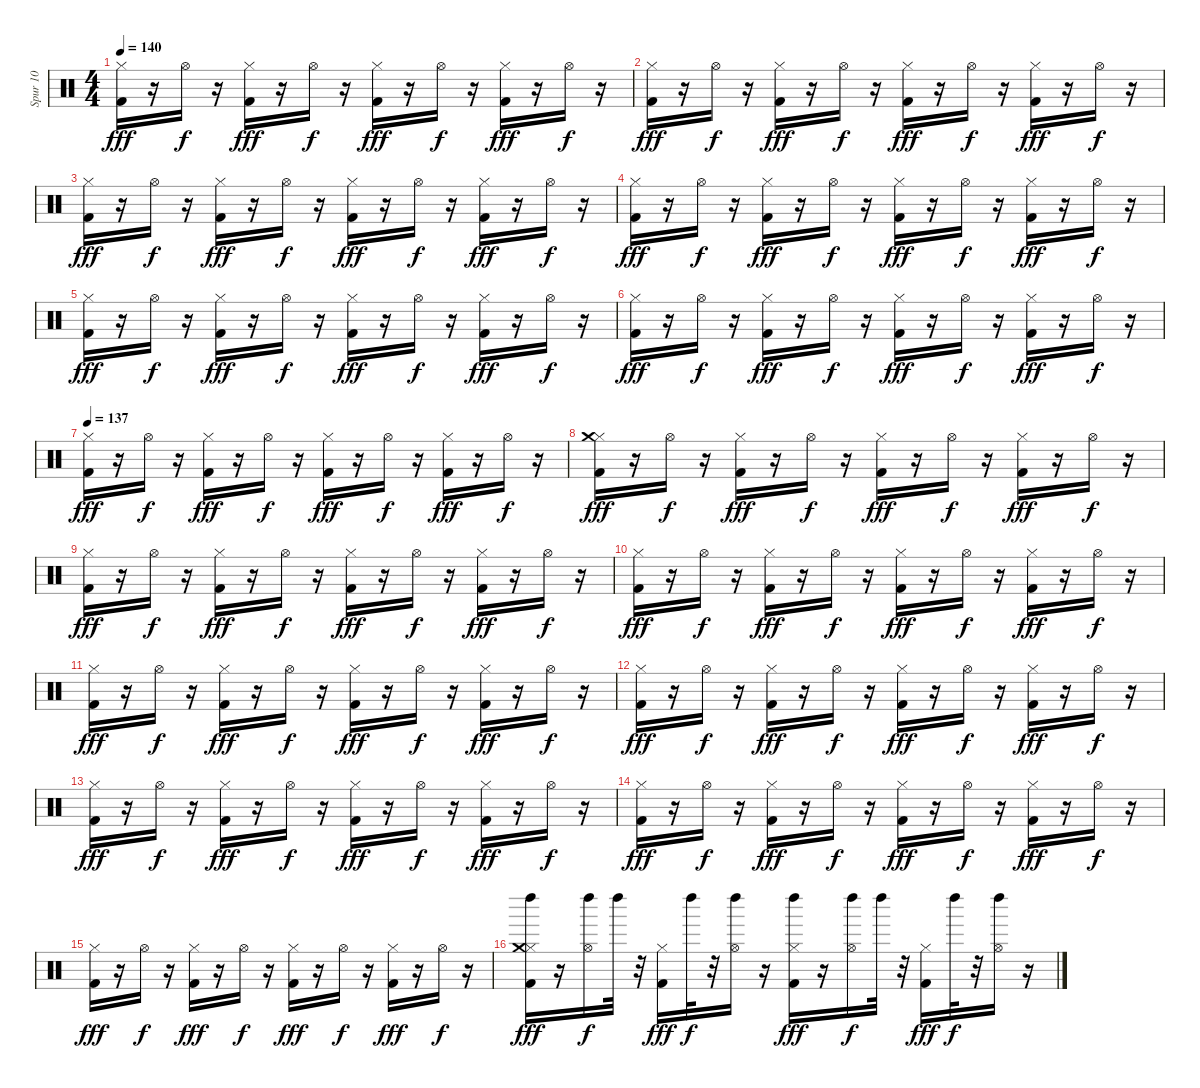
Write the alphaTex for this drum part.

\track ("Spur 10" "Spur 10") {instrument percussion}
\staff {score}
\articulation defaults
\ts (4 4)
\tempo 140
\clef neutral
\ks c
("Kick (hit) 2" "Hi-Hat (closed)").16{dy fff} r.16 "Hi-Hat (open)".16{dy f} r.16 ("Kick (hit) 2" "Hi-Hat (closed)").16{dy fff} r.16 "Hi-Hat (open)".16{dy f} r.16 ("Kick (hit) 2" "Hi-Hat (closed)").16{dy fff} r.16 "Hi-Hat (open)".16{dy f} r.16 ("Kick (hit) 2" "Hi-Hat (closed)").16{dy fff} r.16 "Hi-Hat (open)".16{dy f} r.16 |
("Kick (hit) 2" "Hi-Hat (closed)").16{dy fff} r.16 "Hi-Hat (open)".16{dy f} r.16 ("Kick (hit) 2" "Hi-Hat (closed)").16{dy fff} r.16 "Hi-Hat (open)".16{dy f} r.16 ("Kick (hit) 2" "Hi-Hat (closed)").16{dy fff} r.16 "Hi-Hat (open)".16{dy f} r.16 ("Kick (hit) 2" "Hi-Hat (closed)").16{dy fff} r.16 "Hi-Hat (open)".16{dy f} r.16 |
("Kick (hit) 2" "Hi-Hat (closed)").16{dy fff} r.16 "Hi-Hat (open)".16{dy f} r.16 ("Kick (hit) 2" "Hi-Hat (closed)").16{dy fff} r.16 "Hi-Hat (open)".16{dy f} r.16 ("Kick (hit) 2" "Hi-Hat (closed)").16{dy fff} r.16 "Hi-Hat (open)".16{dy f} r.16 ("Kick (hit) 2" "Hi-Hat (closed)").16{dy fff} r.16 "Hi-Hat (open)".16{dy f} r.16 |
("Kick (hit) 2" "Hi-Hat (closed)").16{dy fff} r.16 "Hi-Hat (open)".16{dy f} r.16 ("Kick (hit) 2" "Hi-Hat (closed)").16{dy fff} r.16 "Hi-Hat (open)".16{dy f} r.16 ("Kick (hit) 2" "Hi-Hat (closed)").16{dy fff} r.16 "Hi-Hat (open)".16{dy f} r.16 ("Kick (hit) 2" "Hi-Hat (closed)").16{dy fff} r.16 "Hi-Hat (open)".16{dy f} r.16 |
("Kick (hit) 2" "Hi-Hat (closed)").16{dy fff} r.16 "Hi-Hat (open)".16{dy f} r.16 ("Kick (hit) 2" "Hi-Hat (closed)").16{dy fff} r.16 "Hi-Hat (open)".16{dy f} r.16 ("Kick (hit) 2" "Hi-Hat (closed)").16{dy fff} r.16 "Hi-Hat (open)".16{dy f} r.16 ("Kick (hit) 2" "Hi-Hat (closed)").16{dy fff} r.16 "Hi-Hat (open)".16{dy f} r.16 |
("Kick (hit) 2" "Hi-Hat (closed)").16{dy fff} r.16 "Hi-Hat (open)".16{dy f} r.16 ("Kick (hit) 2" "Hi-Hat (closed)").16{dy fff} r.16 "Hi-Hat (open)".16{dy f} r.16 ("Kick (hit) 2" "Hi-Hat (closed)").16{dy fff} r.16 "Hi-Hat (open)".16{dy f} r.16 ("Kick (hit) 2" "Hi-Hat (closed)").16{dy fff} r.16 "Hi-Hat (open)".16{dy f} r.16 |
\tempo 137
("Kick (hit) 2" "Hi-Hat (closed)").16{dy fff} r.16 "Hi-Hat (open)".16{dy f} r.16 ("Kick (hit) 2" "Hi-Hat (closed)").16{dy fff} r.16 "Hi-Hat (open)".16{dy f} r.16 ("Kick (hit) 2" "Hi-Hat (closed)").16{dy fff} r.16 "Hi-Hat (open)".16{dy f} r.16 ("Kick (hit) 2" "Hi-Hat (closed)").16{dy fff} r.16 "Hi-Hat (open)".16{dy f} r.16 |
("Kick (hit) 2" "Hi-Hat (closed)" "Crash medium (hit)").16{dy fff} r.16 "Hi-Hat (open)".16{dy f} r.16 ("Kick (hit) 2" "Hi-Hat (closed)").16{dy fff} r.16 "Hi-Hat (open)".16{dy f} r.16 ("Kick (hit) 2" "Hi-Hat (closed)").16{dy fff} r.16 "Hi-Hat (open)".16{dy f} r.16 ("Kick (hit) 2" "Hi-Hat (closed)").16{dy fff} r.16 "Hi-Hat (open)".16{dy f} r.16 |
("Kick (hit) 2" "Hi-Hat (closed)").16{dy fff} r.16 "Hi-Hat (open)".16{dy f} r.16 ("Kick (hit) 2" "Hi-Hat (closed)").16{dy fff} r.16 "Hi-Hat (open)".16{dy f} r.16 ("Kick (hit) 2" "Hi-Hat (closed)").16{dy fff} r.16 "Hi-Hat (open)".16{dy f} r.16 ("Kick (hit) 2" "Hi-Hat (closed)").16{dy fff} r.16 "Hi-Hat (open)".16{dy f} r.16 |
("Kick (hit) 2" "Hi-Hat (closed)").16{dy fff} r.16 "Hi-Hat (open)".16{dy f} r.16 ("Kick (hit) 2" "Hi-Hat (closed)").16{dy fff} r.16 "Hi-Hat (open)".16{dy f} r.16 ("Kick (hit) 2" "Hi-Hat (closed)").16{dy fff} r.16 "Hi-Hat (open)".16{dy f} r.16 ("Kick (hit) 2" "Hi-Hat (closed)").16{dy fff} r.16 "Hi-Hat (open)".16{dy f} r.16 |
("Kick (hit) 2" "Hi-Hat (closed)").16{dy fff} r.16 "Hi-Hat (open)".16{dy f} r.16 ("Kick (hit) 2" "Hi-Hat (closed)").16{dy fff} r.16 "Hi-Hat (open)".16{dy f} r.16 ("Kick (hit) 2" "Hi-Hat (closed)").16{dy fff} r.16 "Hi-Hat (open)".16{dy f} r.16 ("Kick (hit) 2" "Hi-Hat (closed)").16{dy fff} r.16 "Hi-Hat (open)".16{dy f} r.16 |
("Kick (hit) 2" "Hi-Hat (closed)").16{dy fff} r.16 "Hi-Hat (open)".16{dy f} r.16 ("Kick (hit) 2" "Hi-Hat (closed)").16{dy fff} r.16 "Hi-Hat (open)".16{dy f} r.16 ("Kick (hit) 2" "Hi-Hat (closed)").16{dy fff} r.16 "Hi-Hat (open)".16{dy f} r.16 ("Kick (hit) 2" "Hi-Hat (closed)").16{dy fff} r.16 "Hi-Hat (open)".16{dy f} r.16 |
("Kick (hit) 2" "Hi-Hat (closed)").16{dy fff} r.16 "Hi-Hat (open)".16{dy f} r.16 ("Kick (hit) 2" "Hi-Hat (closed)").16{dy fff} r.16 "Hi-Hat (open)".16{dy f} r.16 ("Kick (hit) 2" "Hi-Hat (closed)").16{dy fff} r.16 "Hi-Hat (open)".16{dy f} r.16 ("Kick (hit) 2" "Hi-Hat (closed)").16{dy fff} r.16 "Hi-Hat (open)".16{dy f} r.16 |
("Kick (hit) 2" "Hi-Hat (closed)").16{dy fff} r.16 "Hi-Hat (open)".16{dy f} r.16 ("Kick (hit) 2" "Hi-Hat (closed)").16{dy fff} r.16 "Hi-Hat (open)".16{dy f} r.16 ("Kick (hit) 2" "Hi-Hat (closed)").16{dy fff} r.16 "Hi-Hat (open)".16{dy f} r.16 ("Kick (hit) 2" "Hi-Hat (closed)").16{dy fff} r.16 "Hi-Hat (open)".16{dy f} r.16 |
("Kick (hit) 2" "Hi-Hat (closed)").16{dy fff} r.16 "Hi-Hat (open)".16{dy f} r.16 ("Kick (hit) 2" "Hi-Hat (closed)").16{dy fff} r.16 "Hi-Hat (open)".16{dy f} r.16 ("Kick (hit) 2" "Hi-Hat (closed)").16{dy fff} r.16 "Hi-Hat (open)".16{dy f} r.16 ("Kick (hit) 2" "Hi-Hat (closed)").16{dy fff} r.16 "Hi-Hat (open)".16{dy f} r.16 |
("Kick (hit) 2" "Hi-Hat (closed)" "Crash medium (hit)" "Left Maraca (hit)").16{dy fff} r.16 ("Hi-Hat (open)" "Left Maraca (hit)").16{dy f} "Left Maraca (hit)".32 r.32 ("Kick (hit) 2" "Hi-Hat (closed)").16{dy fff} "Left Maraca (hit)".32{dy f} r.32 ("Hi-Hat (open)" "Left Maraca (hit)").16 r.16 ("Kick (hit) 2" "Hi-Hat (closed)" "Left Maraca (hit)").16{dy fff} r.16 ("Hi-Hat (open)" "Left Maraca (hit)").16{dy f} "Left Maraca (hit)".32 r.32 ("Kick (hit) 2" "Hi-Hat (closed)").16{dy fff} "Left Maraca (hit)".32{dy f} r.32 ("Hi-Hat (open)" "Left Maraca (hit)").16 r.16
